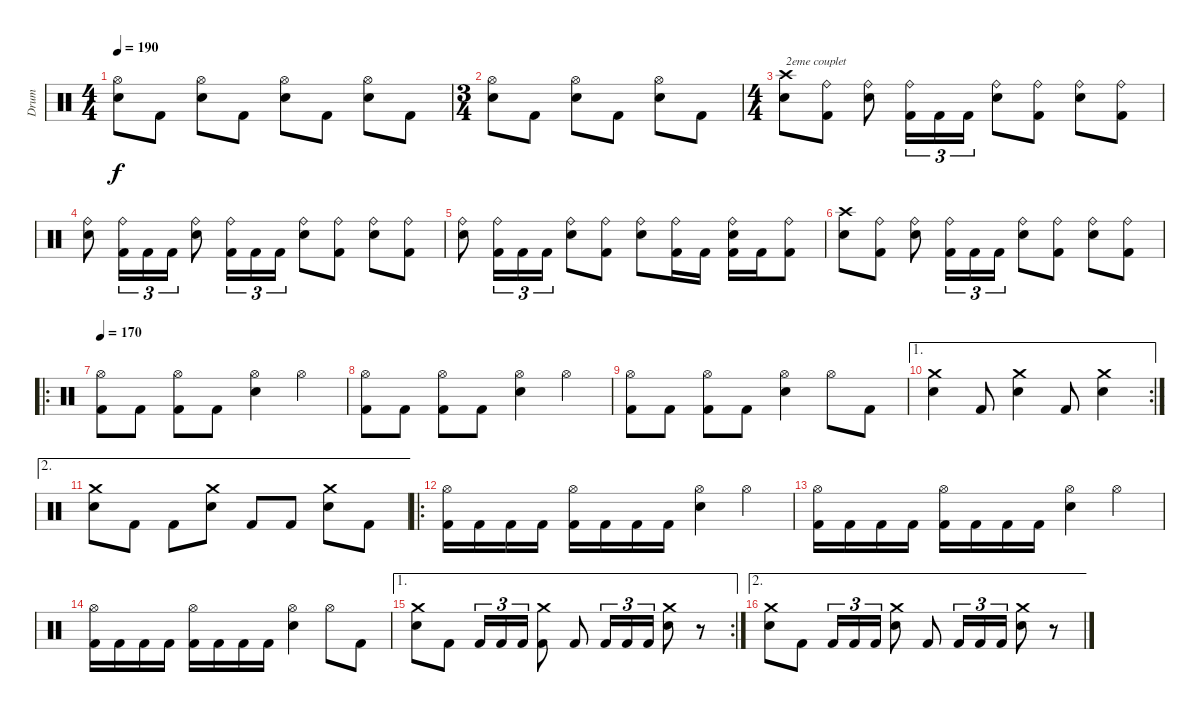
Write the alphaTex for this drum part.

\track ("Drum" "Drum") {instrument percussion}
\staff {score}
\articulation defaults
\ts (4 4)
\tempo 190
\clef neutral
\ks c
("Snare (hit) 2" "Hi-Hat (open)").8{dy f} "Kick (hit) 2".8 ("Snare (hit) 2" "Hi-Hat (open)").8 "Kick (hit) 2".8 ("Snare (hit) 2" "Hi-Hat (open)").8 "Kick (hit) 2".8 ("Snare (hit) 2" "Hi-Hat (open)").8 "Kick (hit) 2".8 |
\ts (3 4)
("Snare (hit) 2" "Hi-Hat (open)").8 "Kick (hit) 2".8 ("Snare (hit) 2" "Hi-Hat (open)").8 "Kick (hit) 2".8 ("Snare (hit) 2" "Hi-Hat (open)").8 "Kick (hit) 2".8 |
\ts (4 4)
("Snare (hit) 2" "Crash high (hit)").8{txt "2eme couplet"} ("Kick (hit) 2" "Ride (bell)").8 ("Snare (hit) 2" "Ride (bell)").8 ("Kick (hit) 2" "Ride (bell)").16{tu (3 2)} "Kick (hit) 2".16{tu (3 2)} "Kick (hit) 2".16{tu (3 2)} ("Snare (hit) 2" "Ride (bell)").8 ("Kick (hit) 2" "Ride (bell)").8 ("Snare (hit) 2" "Ride (bell)").8 ("Kick (hit) 2" "Ride (bell)").8 |
("Snare (hit) 2" "Ride (bell)").8 ("Kick (hit) 2" "Ride (bell)").16{tu (3 2)} "Kick (hit) 2".16{tu (3 2)} "Kick (hit) 2".16{tu (3 2)} ("Snare (hit) 2" "Ride (bell)").8 ("Kick (hit) 2" "Ride (bell)").16{tu (3 2)} "Kick (hit) 2".16{tu (3 2)} "Kick (hit) 2".16{tu (3 2)} ("Snare (hit) 2" "Ride (bell)").8 ("Kick (hit) 2" "Ride (bell)").8 ("Snare (hit) 2" "Ride (bell)").8 ("Kick (hit) 2" "Ride (bell)").8 |
("Snare (hit) 2" "Ride (bell)").8 ("Kick (hit) 2" "Ride (bell)").16{tu (3 2)} "Kick (hit) 2".16{tu (3 2)} "Kick (hit) 2".16{tu (3 2)} ("Snare (hit) 2" "Ride (bell)").8 ("Kick (hit) 2" "Ride (bell)").8 ("Snare (hit) 2" "Ride (bell)").8 ("Kick (hit) 2" "Ride (bell)").16 "Kick (hit) 2".16 ("Kick (hit) 2" "Snare (hit) 2" "Ride (bell)").16 "Kick (hit) 2".16 ("Kick (hit) 2" "Ride (bell)").8 |
("Snare (hit) 2" "Crash high (hit)").8 ("Kick (hit) 2" "Ride (bell)").8 ("Snare (hit) 2" "Ride (bell)").8 ("Kick (hit) 2" "Ride (bell)").16{tu (3 2)} "Kick (hit) 2".16{tu (3 2)} "Kick (hit) 2".16{tu (3 2)} ("Snare (hit) 2" "Ride (bell)").8 ("Kick (hit) 2" "Ride (bell)").8 ("Snare (hit) 2" "Ride (bell)").8 ("Kick (hit) 2" "Ride (bell)").8 |
\ro
\tempo 170
("Kick (hit) 2" "Hi-Hat (open)").8 "Kick (hit) 2".8 ("Kick (hit) 2" "Hi-Hat (open)").8 "Kick (hit) 2".8 ("Snare (hit) 2" "Hi-Hat (open)").4 "Hi-Hat (open)".4 |
("Kick (hit) 2" "Hi-Hat (open)").8 "Kick (hit) 2".8 ("Kick (hit) 2" "Hi-Hat (open)").8 "Kick (hit) 2".8 ("Snare (hit) 2" "Hi-Hat (open)").4 "Hi-Hat (open)".4 |
("Kick (hit) 2" "Hi-Hat (open)").8 "Kick (hit) 2".8 ("Kick (hit) 2" "Hi-Hat (open)").8 "Kick (hit) 2".8 ("Snare (hit) 2" "Hi-Hat (open)").4 "Hi-Hat (open)".8 "Kick (hit) 2".8 |
\ae 1
\rc 2
("Snare (hit) 2" "Crash medium (hit)").4 "Kick (hit) 2".8 ("Snare (hit) 2" "Crash medium (hit)").4 "Kick (hit) 2".8 ("Snare (hit) 2" "Crash medium (hit)").4 |
\ae 2
("Snare (hit) 2" "Crash medium (hit)").8 "Kick (hit) 2".8 "Kick (hit) 2".8 ("Snare (hit) 2" "Crash medium (hit)").8 "Kick (hit) 2".8 "Kick (hit) 2".8 ("Snare (hit) 2" "Crash medium (hit)").8 "Kick (hit) 2".8 |
\ro
("Kick (hit) 2" "Hi-Hat (open)").16 "Kick (hit) 2".16 "Kick (hit) 2".16 "Kick (hit) 2".16 ("Kick (hit) 2" "Hi-Hat (open)").16 "Kick (hit) 2".16 "Kick (hit) 2".16 "Kick (hit) 2".16 ("Snare (hit) 2" "Hi-Hat (open)").4 "Hi-Hat (open)".4 |
("Kick (hit) 2" "Hi-Hat (open)").16 "Kick (hit) 2".16 "Kick (hit) 2".16 "Kick (hit) 2".16 ("Kick (hit) 2" "Hi-Hat (open)").16 "Kick (hit) 2".16 "Kick (hit) 2".16 "Kick (hit) 2".16 ("Snare (hit) 2" "Hi-Hat (open)").4 "Hi-Hat (open)".4 |
("Kick (hit) 2" "Hi-Hat (open)").16 "Kick (hit) 2".16 "Kick (hit) 2".16 "Kick (hit) 2".16 ("Kick (hit) 2" "Hi-Hat (open)").16 "Kick (hit) 2".16 "Kick (hit) 2".16 "Kick (hit) 2".16 ("Snare (hit) 2" "Hi-Hat (open)").4 "Hi-Hat (open)".8 "Kick (hit) 2".8 |
\ae 1
\rc 2
("Snare (hit) 2" "Crash medium (hit)").8 "Kick (hit) 2".8 "Kick (hit) 2".16{tu (3 2)} "Kick (hit) 2".16{tu (3 2)} "Kick (hit) 2".16{tu (3 2)} ("Kick (hit) 2" "Crash medium (hit)").8 "Kick (hit) 2".8 "Kick (hit) 2".16{tu (3 2)} "Kick (hit) 2".16{tu (3 2)} "Kick (hit) 2".16{tu (3 2)} ("Snare (hit) 2" "Crash medium (hit)").8 r.8 |
\ae 2
("Snare (hit) 2" "Crash medium (hit)").8 "Kick (hit) 2".8 "Kick (hit) 2".16{tu (3 2)} "Kick (hit) 2".16{tu (3 2)} "Kick (hit) 2".16{tu (3 2)} ("Snare (hit) 2" "Crash medium (hit)").8 "Kick (hit) 2".8 "Kick (hit) 2".16{tu (3 2)} "Kick (hit) 2".16{tu (3 2)} "Kick (hit) 2".16{tu (3 2)} ("Snare (hit) 2" "Crash medium (hit)").8 r.8
